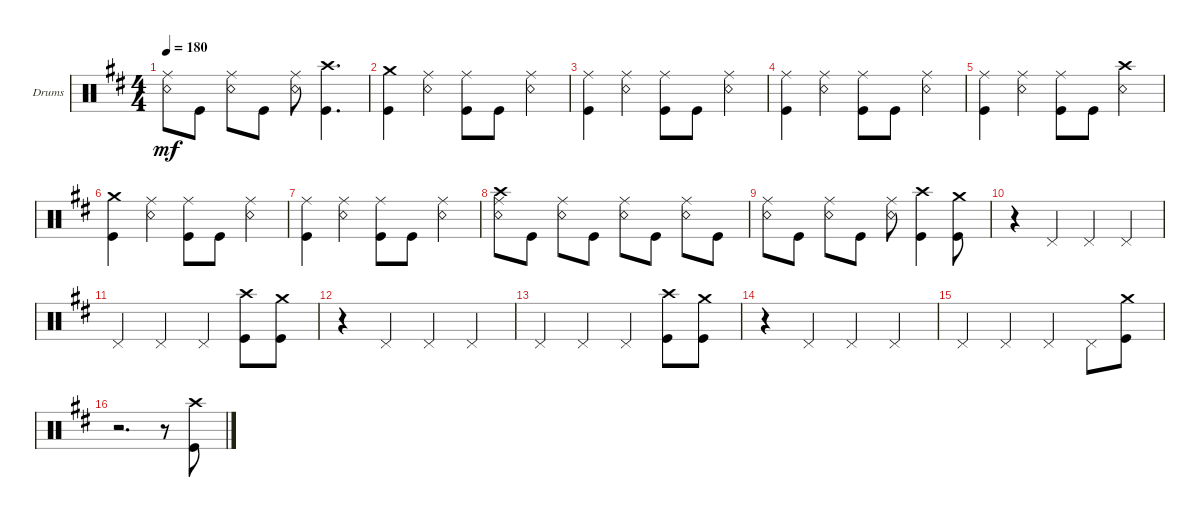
\defaultSystemsLayout 4
\bracketExtendMode groupsimilarinstruments
\firstSystemTrackNameOrientation horizontal
\otherSystemsTrackNameOrientation horizontal
\track ("Drumkit" "Drums") {instrument percussion}
\staff {score}
\articulation defaults
\ts (4 4)
\tempo 180
\clef neutral
\ks bminor
("Snare (rim shot)" "Ride (middle)").8{dy mf} "Kick (hit)".8 ("Snare (rim shot)" "Ride (middle)").8 "Kick (hit)".8 ("Snare (rim shot)" "Ride (middle)").8 ("Kick (hit)" "Crash high (hit)").4{d} |
("Kick (hit)" "Crash medium (hit)").4 ("Ride (middle)" "Snare (rim shot)").4 ("Ride (middle)" "Kick (hit)").8 "Kick (hit)".8 ("Ride (middle)" "Snare (rim shot)").4 |
("Kick (hit)" "Ride (middle)").4 ("Ride (middle)" "Snare (rim shot)").4 ("Ride (middle)" "Kick (hit)").8 "Kick (hit)".8 ("Ride (middle)" "Snare (rim shot)").4 |
("Kick (hit)" "Ride (middle)").4 ("Ride (middle)" "Snare (rim shot)").4 ("Ride (middle)" "Kick (hit)").8 "Kick (hit)".8 ("Ride (middle)" "Snare (rim shot)").4 |
("Kick (hit)" "Ride (middle)").4 ("Ride (middle)" "Snare (rim shot)").4 ("Ride (middle)" "Kick (hit)").8 "Kick (hit)".8 ("Snare (rim shot)" "Crash high (hit)").4 |
("Kick (hit)" "Crash medium (hit)").4 ("Ride (middle)" "Snare (rim shot)").4 ("Ride (middle)" "Kick (hit)").8 "Kick (hit)".8 ("Ride (middle)" "Snare (rim shot)").4 |
("Kick (hit)" "Ride (middle)").4 ("Ride (middle)" "Snare (rim shot)").4 ("Ride (middle)" "Kick (hit)").8 "Kick (hit)".8 ("Ride (middle)" "Snare (rim shot)").4 |
("Snare (rim shot)" "Ride (middle)" "Crash high (hit)").8 "Kick (hit)".8 ("Snare (rim shot)" "Ride (middle)").8 "Kick (hit)".8 ("Snare (rim shot)" "Ride (middle)").8 "Kick (hit)".8 ("Snare (rim shot)" "Ride (middle)").8 "Kick (hit)".8 |
("Snare (rim shot)" "Ride (middle)").8 "Kick (hit)".8 ("Snare (rim shot)" "Ride (middle)").8 "Kick (hit)".8 ("Snare (rim shot)" "Ride (middle)").8 ("Kick (hit)" "Crash high (hit)").4 ("Kick (hit)" "Crash medium (hit)").8 |
r.4 "Pedal Hi-Hat (hit)".4 "Pedal Hi-Hat (hit)".4 "Pedal Hi-Hat (hit)".4 |
"Pedal Hi-Hat (hit)".4 "Pedal Hi-Hat (hit)".4 "Pedal Hi-Hat (hit)".4 ("Kick (hit)" "Crash high (hit)").8 ("Crash medium (hit)" "Kick (hit)").8 |
r.4 "Pedal Hi-Hat (hit)".4 "Pedal Hi-Hat (hit)".4 "Pedal Hi-Hat (hit)".4 |
"Pedal Hi-Hat (hit)".4 "Pedal Hi-Hat (hit)".4 "Pedal Hi-Hat (hit)".4 ("Kick (hit)" "Crash high (hit)").8 ("Crash medium (hit)" "Kick (hit)").8 |
r.4 "Pedal Hi-Hat (hit)".4 "Pedal Hi-Hat (hit)".4 "Pedal Hi-Hat (hit)".4 |
"Pedal Hi-Hat (hit)".4 "Pedal Hi-Hat (hit)".4 "Pedal Hi-Hat (hit)".4 "Pedal Hi-Hat (hit)".8 ("Crash medium (hit)" "Kick (hit)").8 |
r.2{d} r.8 ("Kick (hit)" "Crash high (hit)").8
